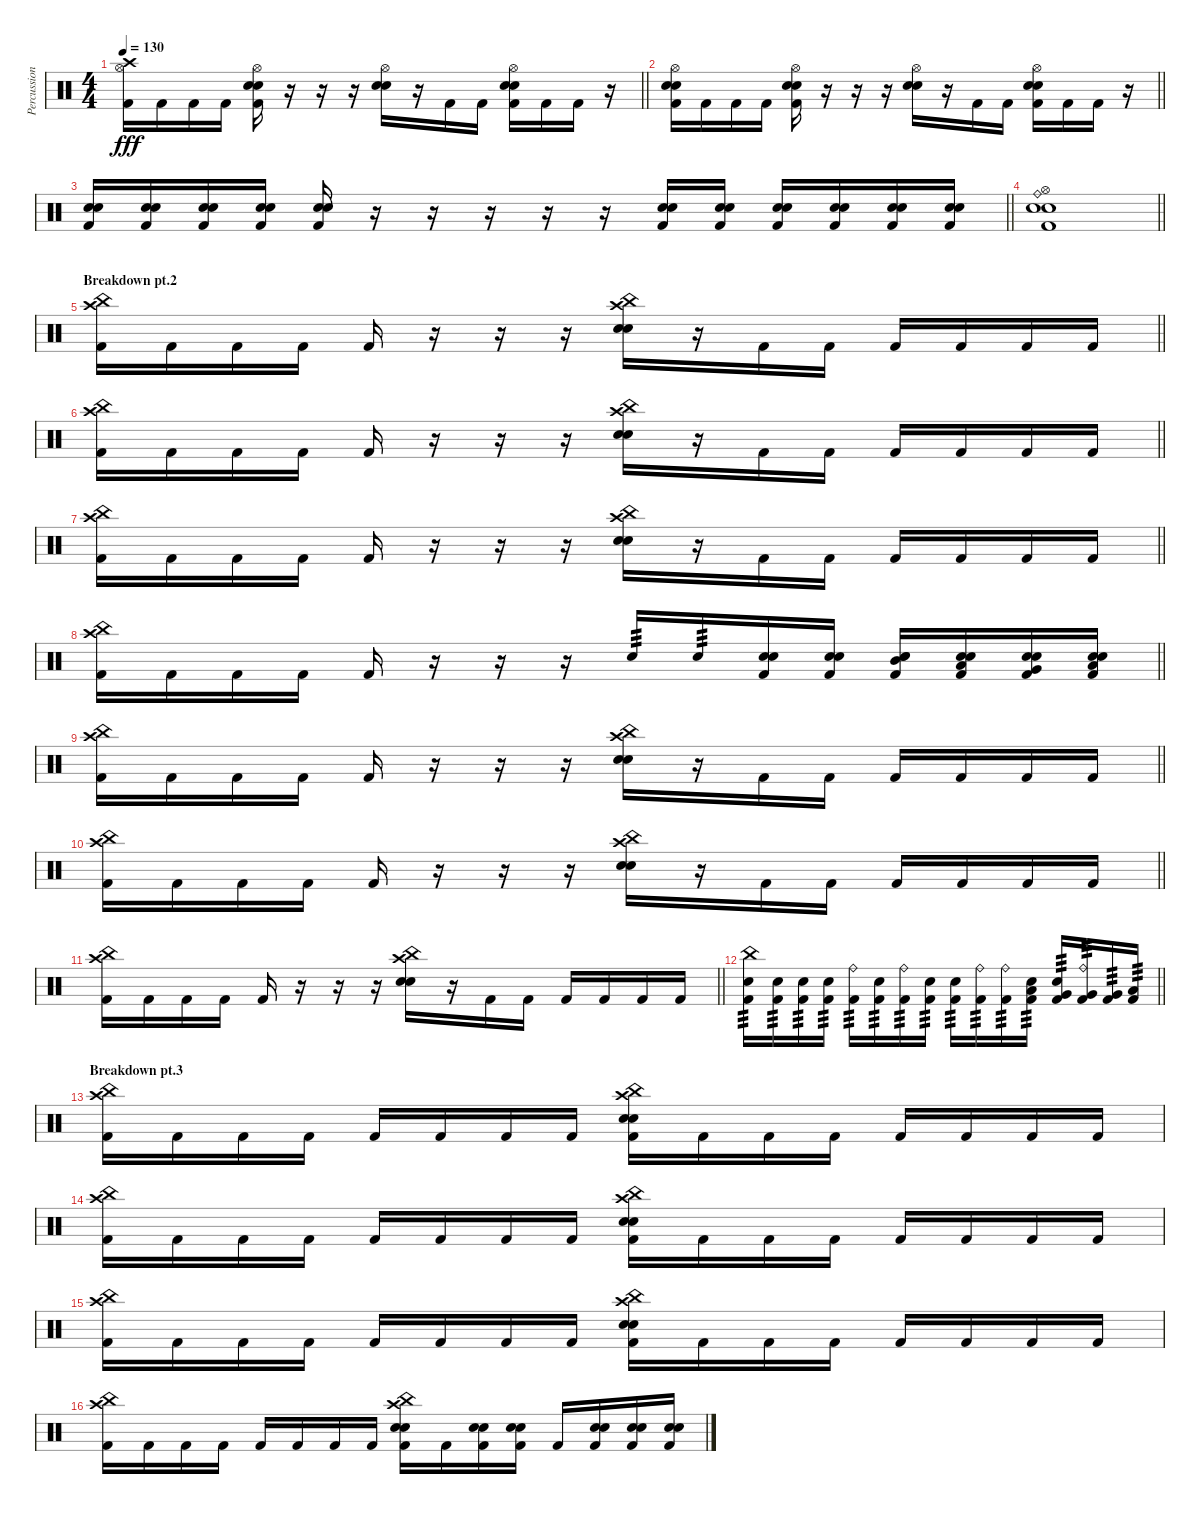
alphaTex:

\track ("Percussion" "Percussion") {instrument percussion}
\staff {score}
\articulation defaults
\ts (4 4)
\tempo 130
\clef neutral
\barLineRight lightlight
\ks c
("Hi-Hat (open)" "Crash high (hit)" "Kick (hit) 2").16{dy fff} "Kick (hit) 2".16 "Kick (hit) 2".16 "Kick (hit) 2".16 ("Hi-Hat (open)" "Electric Snare (hit)" "Snare (hit) 2" "Kick (hit) 2").16 r.16 r.16 r.16 ("Hi-Hat (open)" "Electric Snare (hit)" "Snare (hit) 2").16 r.16 "Kick (hit) 2".16 "Kick (hit) 2".16 ("Hi-Hat (open)" "Electric Snare (hit)" "Snare (hit) 2" "Kick (hit) 2").16 "Kick (hit) 2".16 "Kick (hit) 2".16 r.16 |
\barLineRight lightlight
("Hi-Hat (open)" "Electric Snare (hit)" "Snare (hit) 2" "Kick (hit) 2").16 "Kick (hit) 2".16 "Kick (hit) 2".16 "Kick (hit) 2".16 ("Hi-Hat (open)" "Electric Snare (hit)" "Snare (hit) 2" "Kick (hit) 2").16 r.16 r.16 r.16 ("Hi-Hat (open)" "Electric Snare (hit)" "Snare (hit) 2").16 r.16 "Kick (hit) 2".16 "Kick (hit) 2".16 ("Hi-Hat (open)" "Electric Snare (hit)" "Snare (hit) 2" "Kick (hit) 2").16 "Kick (hit) 2".16 "Kick (hit) 2".16 r.16 |
\barLineRight lightlight
("Electric Snare (hit)" "Snare (hit) 2" "Kick (hit) 2").16 ("Electric Snare (hit)" "Snare (hit) 2" "Kick (hit) 2").16 ("Electric Snare (hit)" "Snare (hit) 2" "Kick (hit) 2").16 ("Electric Snare (hit)" "Snare (hit) 2" "Kick (hit) 2").16 ("Electric Snare (hit)" "Snare (hit) 2" "Kick (hit) 2").16 r.16 r.16 r.16 r.16 r.16 ("Electric Snare (hit)" "Snare (hit) 2" "Kick (hit) 2").16 ("Electric Snare (hit)" "Snare (hit) 2" "Kick (hit) 2").16 ("Electric Snare (hit)" "Snare (hit) 2" "Kick (hit) 2").16 ("Electric Snare (hit)" "Snare (hit) 2" "Kick (hit) 2").16 ("Electric Snare (hit)" "Snare (hit) 2" "Kick (hit) 2").16 ("Electric Snare (hit)" "Snare (hit) 2" "Kick (hit) 2").16 |
\barLineRight lightlight
("Ride (bell)" "Hi-Hat (open)" "Electric Snare (hit)" "Snare (hit) 2" "Kick (hit) 2").1 |
\section ("" "Breakdown pt.2")
\barLineRight lightlight
("China (hit)" "Crash high (hit)" "Kick (hit) 2").16 "Kick (hit) 2".16 "Kick (hit) 2".16 "Kick (hit) 2".16 "Kick (hit) 2".16 r.16 r.16 r.16 ("China (hit)" "Crash high (hit)" "Electric Snare (hit)" "Snare (hit) 2").16 r.16 "Kick (hit) 2".16 "Kick (hit) 2".16 "Kick (hit) 2".16 "Kick (hit) 2".16 "Kick (hit) 2".16 "Kick (hit) 2".16 |
\barLineRight lightlight
("China (hit)" "Crash high (hit)" "Kick (hit) 2").16 "Kick (hit) 2".16 "Kick (hit) 2".16 "Kick (hit) 2".16 "Kick (hit) 2".16 r.16 r.16 r.16 ("China (hit)" "Crash high (hit)" "Electric Snare (hit)" "Snare (hit) 2").16 r.16 "Kick (hit) 2".16 "Kick (hit) 2".16 "Kick (hit) 2".16 "Kick (hit) 2".16 "Kick (hit) 2".16 "Kick (hit) 2".16 |
\barLineRight lightlight
("China (hit)" "Crash high (hit)" "Kick (hit) 2").16 "Kick (hit) 2".16 "Kick (hit) 2".16 "Kick (hit) 2".16 "Kick (hit) 2".16 r.16 r.16 r.16 ("China (hit)" "Crash high (hit)" "Electric Snare (hit)" "Snare (hit) 2").16 r.16 "Kick (hit) 2".16 "Kick (hit) 2".16 "Kick (hit) 2".16 "Kick (hit) 2".16 "Kick (hit) 2".16 "Kick (hit) 2".16 |
\barLineRight lightlight
("China (hit)" "Crash high (hit)" "Kick (hit) 2").16 "Kick (hit) 2".16 "Kick (hit) 2".16 "Kick (hit) 2".16 "Kick (hit) 2".16 r.16 r.16 r.16 "Electric Snare (hit)".16{tp 3} "Electric Snare (hit)".16{tp 3} ("Electric Snare (hit)" "Snare (hit) 2" "Kick (hit) 2").16 ("Electric Snare (hit)" "Snare (hit) 2" "Kick (hit) 2").16 ("Electric Snare (hit)" "Mid Tom (hit)" "Snare (hit) 2" "Kick (hit) 2").16 ("Electric Snare (hit)" "Low Tom (hit)" "Snare (hit) 2" "Kick (hit) 2").16 ("Electric Snare (hit)" "Very Low Tom (hit)" "Snare (hit) 2" "Kick (hit) 2").16 ("Electric Snare (hit)" "Low Floor Tom (hit)" "Snare (hit) 2" "Kick (hit) 2").16 |
\barLineRight lightlight
("China (hit)" "Crash high (hit)" "Kick (hit) 2").16 "Kick (hit) 2".16 "Kick (hit) 2".16 "Kick (hit) 2".16 "Kick (hit) 2".16 r.16 r.16 r.16 ("China (hit)" "Crash high (hit)" "Electric Snare (hit)" "Snare (hit) 2").16 r.16 "Kick (hit) 2".16 "Kick (hit) 2".16 "Kick (hit) 2".16 "Kick (hit) 2".16 "Kick (hit) 2".16 "Kick (hit) 2".16 |
\barLineRight lightlight
("China (hit)" "Crash high (hit)" "Kick (hit) 2").16 "Kick (hit) 2".16 "Kick (hit) 2".16 "Kick (hit) 2".16 "Kick (hit) 2".16 r.16 r.16 r.16 ("China (hit)" "Crash high (hit)" "Electric Snare (hit)" "Snare (hit) 2").16 r.16 "Kick (hit) 2".16 "Kick (hit) 2".16 "Kick (hit) 2".16 "Kick (hit) 2".16 "Kick (hit) 2".16 "Kick (hit) 2".16 |
\barLineRight lightlight
("China (hit)" "Crash high (hit)" "Kick (hit) 2").16 "Kick (hit) 2".16 "Kick (hit) 2".16 "Kick (hit) 2".16 "Kick (hit) 2".16 r.16 r.16 r.16 ("China (hit)" "Crash high (hit)" "Electric Snare (hit)" "Snare (hit) 2").16 r.16 "Kick (hit) 2".16 "Kick (hit) 2".16 "Kick (hit) 2".16 "Kick (hit) 2".16 "Kick (hit) 2".16 "Kick (hit) 2".16 |
\barLineRight lightlight
("China (hit)" "Electric Snare (hit)" "Kick (hit) 2").16{tp 3} ("Electric Snare (hit)" "Kick (hit) 2").16{tp 3} ("Snare (hit) 2" "Kick (hit) 2").16{tp 3} ("Snare (hit) 2" "Kick (hit) 2").16{tp 3} ("Ride (bell)" "Kick (hit) 2").16{tp 3} ("Electric Snare (hit)" "Kick (hit) 2").16{tp 3} ("Ride (bell)" "Kick (hit) 2").16{tp 3} ("Electric Snare (hit)" "Kick (hit) 2").16{tp 3} ("Electric Snare (hit)" "Kick (hit) 2").16{tp 3} ("Ride (bell)" "Kick (hit) 2").16{tp 3} ("Ride (bell)" "Kick (hit) 2").16{tp 3} ("Electric Snare (hit)" "Low Tom (hit)" "Kick (hit) 2").16{tp 3} ("Electric Snare (hit)" "Very Low Tom (hit)" "Kick (hit) 2").16{tp 3} ("Ride (bell)" "Very Low Tom (hit)" "Kick (hit) 2").16{tp 3} ("Very Low Tom (hit)" "Kick (hit) 2").16{tp 3} ("Low Floor Tom (hit)" "Kick (hit) 2").16{tp 3} |
\section ("" "Breakdown pt.3")
("China (hit)" "Crash high (hit)" "Kick (hit) 2").16 "Kick (hit) 2".16 "Kick (hit) 2".16 "Kick (hit) 2".16 "Kick (hit) 2".16 "Kick (hit) 2".16 "Kick (hit) 2".16 "Kick (hit) 2".16 ("China (hit)" "Crash high (hit)" "Electric Snare (hit)" "Snare (hit) 2" "Kick (hit) 2").16 "Kick (hit) 2".16 "Kick (hit) 2".16 "Kick (hit) 2".16 "Kick (hit) 2".16 "Kick (hit) 2".16 "Kick (hit) 2".16 "Kick (hit) 2".16 |
("China (hit)" "Crash high (hit)" "Kick (hit) 2").16 "Kick (hit) 2".16 "Kick (hit) 2".16 "Kick (hit) 2".16 "Kick (hit) 2".16 "Kick (hit) 2".16 "Kick (hit) 2".16 "Kick (hit) 2".16 ("China (hit)" "Crash high (hit)" "Electric Snare (hit)" "Snare (hit) 2" "Kick (hit) 2").16 "Kick (hit) 2".16 "Kick (hit) 2".16 "Kick (hit) 2".16 "Kick (hit) 2".16 "Kick (hit) 2".16 "Kick (hit) 2".16 "Kick (hit) 2".16 |
("China (hit)" "Crash high (hit)" "Kick (hit) 2").16 "Kick (hit) 2".16 "Kick (hit) 2".16 "Kick (hit) 2".16 "Kick (hit) 2".16 "Kick (hit) 2".16 "Kick (hit) 2".16 "Kick (hit) 2".16 ("China (hit)" "Crash high (hit)" "Electric Snare (hit)" "Snare (hit) 2" "Kick (hit) 2").16 "Kick (hit) 2".16 "Kick (hit) 2".16 "Kick (hit) 2".16 "Kick (hit) 2".16 "Kick (hit) 2".16 "Kick (hit) 2".16 "Kick (hit) 2".16 |
("China (hit)" "Crash high (hit)" "Kick (hit) 2").16 "Kick (hit) 2".16 "Kick (hit) 2".16 "Kick (hit) 2".16 "Kick (hit) 2".16 "Kick (hit) 2".16 "Kick (hit) 2".16 "Kick (hit) 2".16 ("China (hit)" "Crash high (hit)" "Electric Snare (hit)" "Snare (hit) 2" "Kick (hit) 2").16 "Kick (hit) 2".16 ("Electric Snare (hit)" "Snare (hit) 2" "Kick (hit) 2").16 ("Electric Snare (hit)" "Snare (hit) 2" "Kick (hit) 2").16 "Kick (hit) 2".16 ("Electric Snare (hit)" "Snare (hit) 2" "Kick (hit) 2").16 ("Electric Snare (hit)" "Snare (hit) 2" "Kick (hit) 2").16 ("Electric Snare (hit)" "Snare (hit) 2" "Kick (hit) 2").16
